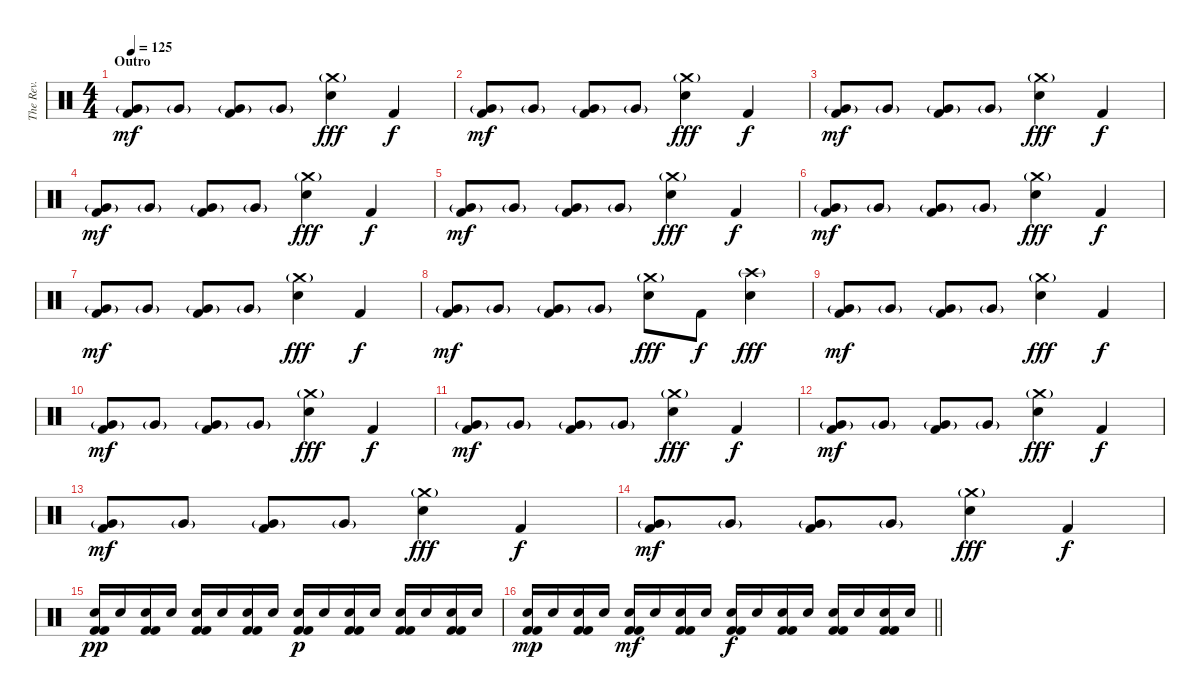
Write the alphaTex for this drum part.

\track ("The Rev." "The Rev.") {instrument percussion}
\staff {score}
\articulation defaults
\ts (4 4)
\section ("" "Outro")
\tempo 125
\clef neutral
\ks c
("Very Low Tom (hit)"{g} "Kick (hit) 2").8{dy mf} "Very Low Tom (hit)"{g}.8 ("Very Low Tom (hit)"{g} "Kick (hit) 2").8 "Very Low Tom (hit)"{g}.8 ("Crash medium (hit)"{g} "Electric Snare (hit)").4{dy fff} "Kick (hit) 2".4{dy f} |
("Very Low Tom (hit)"{g} "Kick (hit) 2").8{dy mf} "Very Low Tom (hit)"{g}.8 ("Very Low Tom (hit)"{g} "Kick (hit) 2").8 "Very Low Tom (hit)"{g}.8 ("Crash medium (hit)"{g} "Electric Snare (hit)").4{dy fff} "Kick (hit) 2".4{dy f} |
("Very Low Tom (hit)"{g} "Kick (hit) 2").8{dy mf} "Very Low Tom (hit)"{g}.8 ("Very Low Tom (hit)"{g} "Kick (hit) 2").8 "Very Low Tom (hit)"{g}.8 ("Crash medium (hit)"{g} "Electric Snare (hit)").4{dy fff} "Kick (hit) 2".4{dy f} |
("Very Low Tom (hit)"{g} "Kick (hit) 2").8{dy mf} "Very Low Tom (hit)"{g}.8 ("Very Low Tom (hit)"{g} "Kick (hit) 2").8 "Very Low Tom (hit)"{g}.8 ("Crash medium (hit)"{g} "Electric Snare (hit)").4{dy fff} "Kick (hit) 2".4{dy f} |
("Very Low Tom (hit)"{g} "Kick (hit) 2").8{dy mf} "Very Low Tom (hit)"{g}.8 ("Very Low Tom (hit)"{g} "Kick (hit) 2").8 "Very Low Tom (hit)"{g}.8 ("Crash medium (hit)"{g} "Electric Snare (hit)").4{dy fff} "Kick (hit) 2".4{dy f} |
("Very Low Tom (hit)"{g} "Kick (hit) 2").8{dy mf} "Very Low Tom (hit)"{g}.8 ("Very Low Tom (hit)"{g} "Kick (hit) 2").8 "Very Low Tom (hit)"{g}.8 ("Crash medium (hit)"{g} "Electric Snare (hit)").4{dy fff} "Kick (hit) 2".4{dy f} |
("Very Low Tom (hit)"{g} "Kick (hit) 2").8{dy mf} "Very Low Tom (hit)"{g}.8 ("Very Low Tom (hit)"{g} "Kick (hit) 2").8 "Very Low Tom (hit)"{g}.8 ("Crash medium (hit)"{g} "Electric Snare (hit)").4{dy fff} "Kick (hit) 2".4{dy f} |
("Very Low Tom (hit)"{g} "Kick (hit) 2").8{dy mf} "Very Low Tom (hit)"{g}.8 ("Very Low Tom (hit)"{g} "Kick (hit) 2").8 "Very Low Tom (hit)"{g}.8 ("Crash medium (hit)"{g} "Electric Snare (hit)").8{dy fff} "Kick (hit) 2".8{dy f} ("Crash high (hit)"{g} "Electric Snare (hit)").4{dy fff} |
("Very Low Tom (hit)"{g} "Kick (hit) 2").8{dy mf} "Very Low Tom (hit)"{g}.8 ("Very Low Tom (hit)"{g} "Kick (hit) 2").8 "Very Low Tom (hit)"{g}.8 ("Crash medium (hit)"{g} "Electric Snare (hit)").4{dy fff} "Kick (hit) 2".4{dy f} |
("Very Low Tom (hit)"{g} "Kick (hit) 2").8{dy mf} "Very Low Tom (hit)"{g}.8 ("Very Low Tom (hit)"{g} "Kick (hit) 2").8 "Very Low Tom (hit)"{g}.8 ("Crash medium (hit)"{g} "Electric Snare (hit)").4{dy fff} "Kick (hit) 2".4{dy f} |
("Very Low Tom (hit)"{g} "Kick (hit) 2").8{dy mf} "Very Low Tom (hit)"{g}.8 ("Very Low Tom (hit)"{g} "Kick (hit) 2").8 "Very Low Tom (hit)"{g}.8 ("Crash medium (hit)"{g} "Electric Snare (hit)").4{dy fff} "Kick (hit) 2".4{dy f} |
("Very Low Tom (hit)"{g} "Kick (hit) 2").8{dy mf} "Very Low Tom (hit)"{g}.8 ("Very Low Tom (hit)"{g} "Kick (hit) 2").8 "Very Low Tom (hit)"{g}.8 ("Crash medium (hit)"{g} "Electric Snare (hit)").4{dy fff} "Kick (hit) 2".4{dy f} |
("Very Low Tom (hit)"{g} "Kick (hit) 2").8{dy mf} "Very Low Tom (hit)"{g}.8 ("Very Low Tom (hit)"{g} "Kick (hit) 2").8 "Very Low Tom (hit)"{g}.8 ("Crash medium (hit)"{g} "Electric Snare (hit)").4{dy fff} "Kick (hit) 2".4{dy f} |
("Very Low Tom (hit)"{g} "Kick (hit) 2").8{dy mf} "Very Low Tom (hit)"{g}.8 ("Very Low Tom (hit)"{g} "Kick (hit) 2").8 "Very Low Tom (hit)"{g}.8 ("Crash medium (hit)"{g} "Electric Snare (hit)").4{dy fff} "Kick (hit) 2".4{dy f} |
("Electric Snare (hit)" "Kick (hit) 2" "Kick (hit) 2").16{dy pp} "Electric Snare (hit)".16 ("Electric Snare (hit)" "Kick (hit) 2" "Kick (hit) 2").16 "Electric Snare (hit)".16 ("Electric Snare (hit)" "Kick (hit) 2" "Kick (hit) 2").16 "Electric Snare (hit)".16 ("Electric Snare (hit)" "Kick (hit) 2" "Kick (hit) 2").16 "Electric Snare (hit)".16 ("Electric Snare (hit)" "Kick (hit) 2" "Kick (hit) 2").16{dy p} "Electric Snare (hit)".16 ("Electric Snare (hit)" "Kick (hit) 2" "Kick (hit) 2").16 "Electric Snare (hit)".16 ("Electric Snare (hit)" "Kick (hit) 2" "Kick (hit) 2").16 "Electric Snare (hit)".16 ("Electric Snare (hit)" "Kick (hit) 2" "Kick (hit) 2").16 "Electric Snare (hit)".16 |
\barLineRight lightlight
("Electric Snare (hit)" "Kick (hit) 2" "Kick (hit) 2").16{dy mp} "Electric Snare (hit)".16 ("Electric Snare (hit)" "Kick (hit) 2" "Kick (hit) 2").16 "Electric Snare (hit)".16 ("Electric Snare (hit)" "Kick (hit) 2" "Kick (hit) 2").16{dy mf} "Electric Snare (hit)".16 ("Electric Snare (hit)" "Kick (hit) 2" "Kick (hit) 2").16 "Electric Snare (hit)".16 ("Electric Snare (hit)" "Kick (hit) 2" "Kick (hit) 2").16{dy f} "Electric Snare (hit)".16 ("Electric Snare (hit)" "Kick (hit) 2" "Kick (hit) 2").16 "Electric Snare (hit)".16 ("Electric Snare (hit)" "Kick (hit) 2" "Kick (hit) 2").16 "Electric Snare (hit)".16 ("Electric Snare (hit)" "Kick (hit) 2" "Kick (hit) 2").16 "Electric Snare (hit)".16
